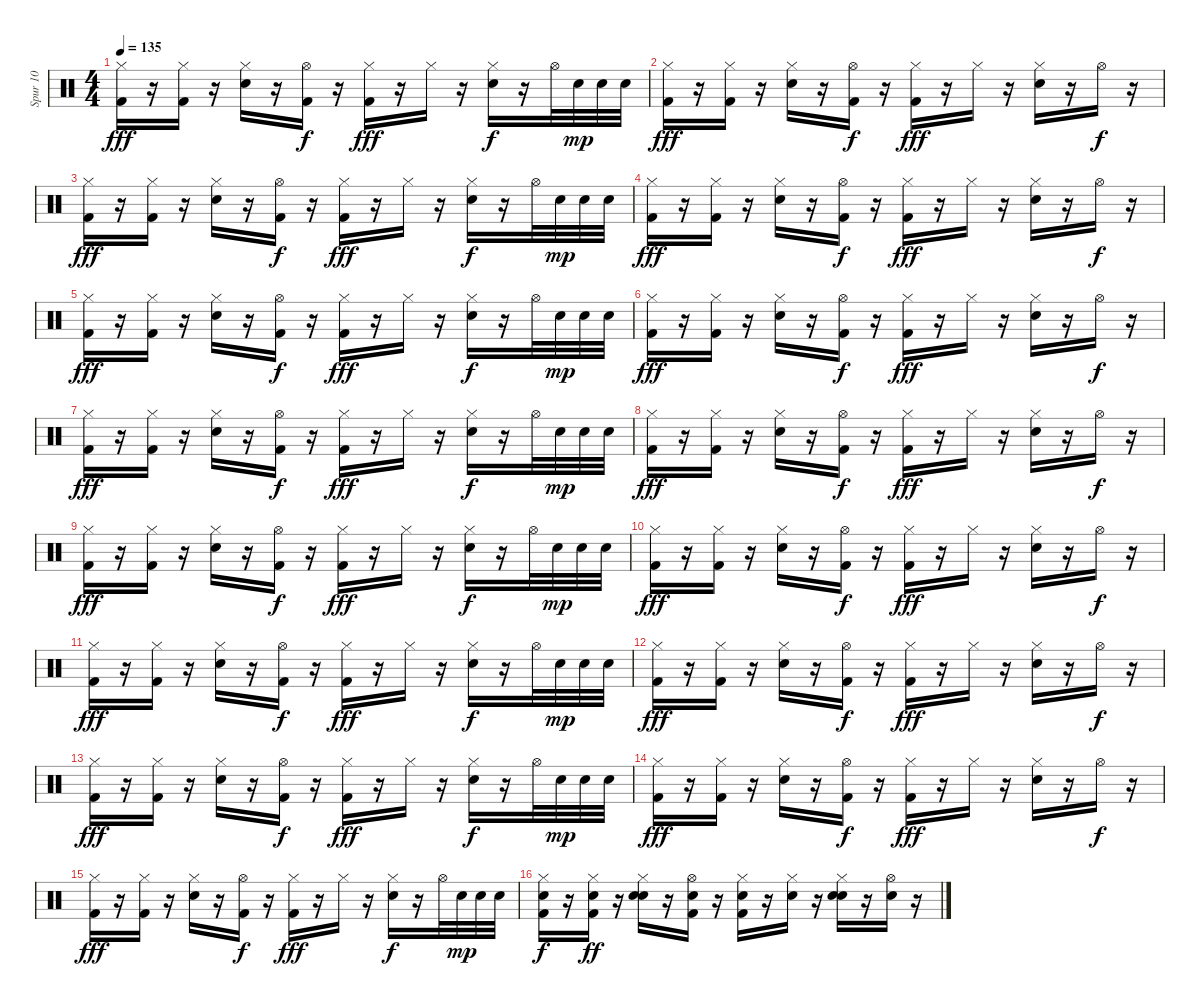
\track ("Spur 10" "Spur 10") {instrument percussion}
\staff {score}
\articulation defaults
\ts (4 4)
\tempo 135
\clef neutral
\ks c
("Hi-Hat (closed)" "Kick (hit) 2").16{dy fff} r.16 ("Hi-Hat (closed)" "Kick (hit) 2").16 r.16 ("Hi-Hat (closed)" "Electric Snare (hit)").16 r.16 ("Hi-Hat (open)" "Kick (hit) 2").16{dy f} r.16 ("Hi-Hat (closed)" "Kick (hit) 2").16{dy fff} r.16 "Hi-Hat (closed)".16 r.16 ("Electric Snare (hit)" "Hi-Hat (closed)").16{dy f} r.16 "Hi-Hat (open)".32 "Snare (hit) 2".32{dy mp} "Snare (hit) 2".32 "Snare (hit) 2".32 |
("Hi-Hat (closed)" "Kick (hit) 2").16{dy fff} r.16 ("Hi-Hat (closed)" "Kick (hit) 2").16 r.16 ("Hi-Hat (closed)" "Electric Snare (hit)").16 r.16 ("Hi-Hat (open)" "Kick (hit) 2").16{dy f} r.16 ("Hi-Hat (closed)" "Kick (hit) 2").16{dy fff} r.16 "Hi-Hat (closed)".16 r.16 ("Hi-Hat (closed)" "Electric Snare (hit)").16 r.16 "Hi-Hat (open)".16{dy f} r.16 |
("Hi-Hat (closed)" "Kick (hit) 2").16{dy fff} r.16 ("Hi-Hat (closed)" "Kick (hit) 2").16 r.16 ("Hi-Hat (closed)" "Electric Snare (hit)").16 r.16 ("Hi-Hat (open)" "Kick (hit) 2").16{dy f} r.16 ("Hi-Hat (closed)" "Kick (hit) 2").16{dy fff} r.16 "Hi-Hat (closed)".16 r.16 ("Electric Snare (hit)" "Hi-Hat (closed)").16{dy f} r.16 "Hi-Hat (open)".32 "Snare (hit) 2".32{dy mp} "Snare (hit) 2".32 "Snare (hit) 2".32 |
("Hi-Hat (closed)" "Kick (hit) 2").16{dy fff} r.16 ("Hi-Hat (closed)" "Kick (hit) 2").16 r.16 ("Hi-Hat (closed)" "Electric Snare (hit)").16 r.16 ("Hi-Hat (open)" "Kick (hit) 2").16{dy f} r.16 ("Hi-Hat (closed)" "Kick (hit) 2").16{dy fff} r.16 "Hi-Hat (closed)".16 r.16 ("Hi-Hat (closed)" "Electric Snare (hit)").16 r.16 "Hi-Hat (open)".16{dy f} r.16 |
("Hi-Hat (closed)" "Kick (hit) 2").16{dy fff} r.16 ("Hi-Hat (closed)" "Kick (hit) 2").16 r.16 ("Hi-Hat (closed)" "Electric Snare (hit)").16 r.16 ("Hi-Hat (open)" "Kick (hit) 2").16{dy f} r.16 ("Hi-Hat (closed)" "Kick (hit) 2").16{dy fff} r.16 "Hi-Hat (closed)".16 r.16 ("Electric Snare (hit)" "Hi-Hat (closed)").16{dy f} r.16 "Hi-Hat (open)".32 "Snare (hit) 2".32{dy mp} "Snare (hit) 2".32 "Snare (hit) 2".32 |
("Hi-Hat (closed)" "Kick (hit) 2").16{dy fff} r.16 ("Hi-Hat (closed)" "Kick (hit) 2").16 r.16 ("Hi-Hat (closed)" "Electric Snare (hit)").16 r.16 ("Hi-Hat (open)" "Kick (hit) 2").16{dy f} r.16 ("Hi-Hat (closed)" "Kick (hit) 2").16{dy fff} r.16 "Hi-Hat (closed)".16 r.16 ("Hi-Hat (closed)" "Electric Snare (hit)").16 r.16 "Hi-Hat (open)".16{dy f} r.16 |
("Hi-Hat (closed)" "Kick (hit) 2").16{dy fff} r.16 ("Hi-Hat (closed)" "Kick (hit) 2").16 r.16 ("Hi-Hat (closed)" "Electric Snare (hit)").16 r.16 ("Hi-Hat (open)" "Kick (hit) 2").16{dy f} r.16 ("Hi-Hat (closed)" "Kick (hit) 2").16{dy fff} r.16 "Hi-Hat (closed)".16 r.16 ("Electric Snare (hit)" "Hi-Hat (closed)").16{dy f} r.16 "Hi-Hat (open)".32 "Snare (hit) 2".32{dy mp} "Snare (hit) 2".32 "Snare (hit) 2".32 |
("Hi-Hat (closed)" "Kick (hit) 2").16{dy fff} r.16 ("Hi-Hat (closed)" "Kick (hit) 2").16 r.16 ("Hi-Hat (closed)" "Electric Snare (hit)").16 r.16 ("Hi-Hat (open)" "Kick (hit) 2").16{dy f} r.16 ("Hi-Hat (closed)" "Kick (hit) 2").16{dy fff} r.16 "Hi-Hat (closed)".16 r.16 ("Hi-Hat (closed)" "Electric Snare (hit)").16 r.16 "Hi-Hat (open)".16{dy f} r.16 |
("Hi-Hat (closed)" "Kick (hit) 2").16{dy fff} r.16 ("Hi-Hat (closed)" "Kick (hit) 2").16 r.16 ("Hi-Hat (closed)" "Electric Snare (hit)").16 r.16 ("Hi-Hat (open)" "Kick (hit) 2").16{dy f} r.16 ("Hi-Hat (closed)" "Kick (hit) 2").16{dy fff} r.16 "Hi-Hat (closed)".16 r.16 ("Electric Snare (hit)" "Hi-Hat (closed)").16{dy f} r.16 "Hi-Hat (open)".32 "Snare (hit) 2".32{dy mp} "Snare (hit) 2".32 "Snare (hit) 2".32 |
("Hi-Hat (closed)" "Kick (hit) 2").16{dy fff} r.16 ("Hi-Hat (closed)" "Kick (hit) 2").16 r.16 ("Hi-Hat (closed)" "Electric Snare (hit)").16 r.16 ("Hi-Hat (open)" "Kick (hit) 2").16{dy f} r.16 ("Hi-Hat (closed)" "Kick (hit) 2").16{dy fff} r.16 "Hi-Hat (closed)".16 r.16 ("Hi-Hat (closed)" "Electric Snare (hit)").16 r.16 "Hi-Hat (open)".16{dy f} r.16 |
("Hi-Hat (closed)" "Kick (hit) 2").16{dy fff} r.16 ("Hi-Hat (closed)" "Kick (hit) 2").16 r.16 ("Hi-Hat (closed)" "Electric Snare (hit)").16 r.16 ("Hi-Hat (open)" "Kick (hit) 2").16{dy f} r.16 ("Hi-Hat (closed)" "Kick (hit) 2").16{dy fff} r.16 "Hi-Hat (closed)".16 r.16 ("Electric Snare (hit)" "Hi-Hat (closed)").16{dy f} r.16 "Hi-Hat (open)".32 "Snare (hit) 2".32{dy mp} "Snare (hit) 2".32 "Snare (hit) 2".32 |
("Hi-Hat (closed)" "Kick (hit) 2").16{dy fff} r.16 ("Hi-Hat (closed)" "Kick (hit) 2").16 r.16 ("Hi-Hat (closed)" "Electric Snare (hit)").16 r.16 ("Hi-Hat (open)" "Kick (hit) 2").16{dy f} r.16 ("Hi-Hat (closed)" "Kick (hit) 2").16{dy fff} r.16 "Hi-Hat (closed)".16 r.16 ("Hi-Hat (closed)" "Electric Snare (hit)").16 r.16 "Hi-Hat (open)".16{dy f} r.16 |
("Hi-Hat (closed)" "Kick (hit) 2").16{dy fff} r.16 ("Hi-Hat (closed)" "Kick (hit) 2").16 r.16 ("Hi-Hat (closed)" "Electric Snare (hit)").16 r.16 ("Hi-Hat (open)" "Kick (hit) 2").16{dy f} r.16 ("Hi-Hat (closed)" "Kick (hit) 2").16{dy fff} r.16 "Hi-Hat (closed)".16 r.16 ("Electric Snare (hit)" "Hi-Hat (closed)").16{dy f} r.16 "Hi-Hat (open)".32 "Snare (hit) 2".32{dy mp} "Snare (hit) 2".32 "Snare (hit) 2".32 |
("Hi-Hat (closed)" "Kick (hit) 2").16{dy fff} r.16 ("Hi-Hat (closed)" "Kick (hit) 2").16 r.16 ("Hi-Hat (closed)" "Electric Snare (hit)").16 r.16 ("Hi-Hat (open)" "Kick (hit) 2").16{dy f} r.16 ("Hi-Hat (closed)" "Kick (hit) 2").16{dy fff} r.16 "Hi-Hat (closed)".16 r.16 ("Hi-Hat (closed)" "Electric Snare (hit)").16 r.16 "Hi-Hat (open)".16{dy f} r.16 |
("Hi-Hat (closed)" "Kick (hit) 2").16{dy fff} r.16 ("Hi-Hat (closed)" "Kick (hit) 2").16 r.16 ("Hi-Hat (closed)" "Electric Snare (hit)").16 r.16 ("Hi-Hat (open)" "Kick (hit) 2").16{dy f} r.16 ("Hi-Hat (closed)" "Kick (hit) 2").16{dy fff} r.16 "Hi-Hat (closed)".16 r.16 ("Electric Snare (hit)" "Hi-Hat (closed)").16{dy f} r.16 "Hi-Hat (open)".32 "Snare (hit) 2".32{dy mp} "Snare (hit) 2".32 "Snare (hit) 2".32 |
("Hi-Hat (closed)" "Kick (hit) 2" "Snare (hit) 2").16{dy f} r.16 ("Hi-Hat (closed)" "Snare (hit) 2" "Kick (hit) 2").16{dy ff} r.16 ("Hi-Hat (closed)" "Snare (hit) 2" "Electric Snare (hit)").16 r.16 ("Hi-Hat (open)" "Snare (hit) 2" "Kick (hit) 2").16 r.16 ("Kick (hit) 2" "Hi-Hat (closed)" "Snare (hit) 2").16 r.16 ("Hi-Hat (closed)" "Snare (hit) 2").16 r.16 ("Electric Snare (hit)" "Hi-Hat (closed)" "Snare (hit) 2").16 r.16 ("Hi-Hat (open)" "Snare (hit) 2").16 r.16
